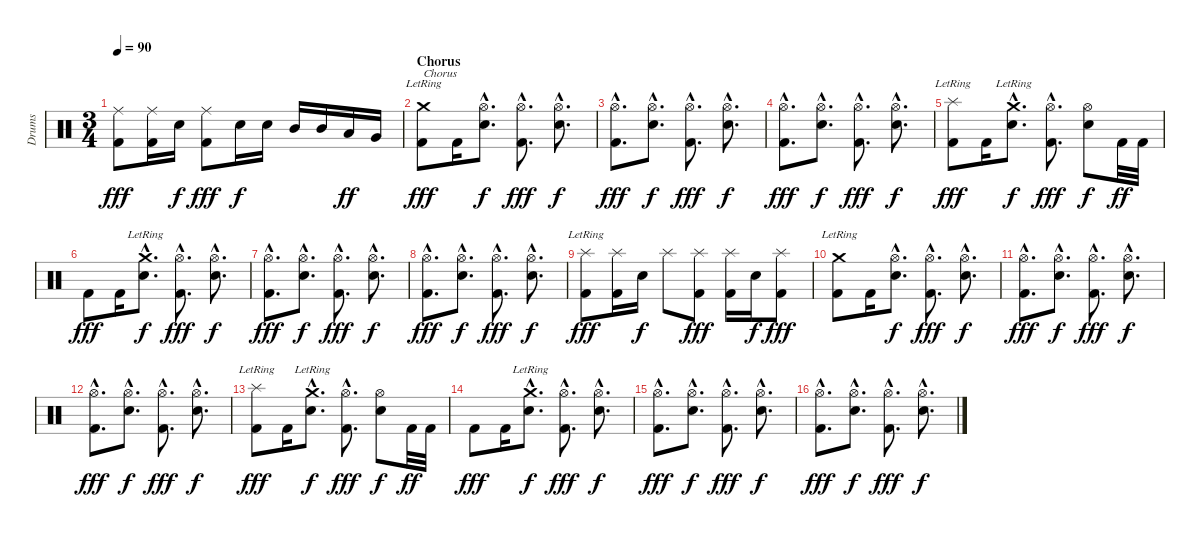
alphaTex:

\track ("Drums" "Drums") {instrument percussion}
\staff {score}
\articulation defaults
\ts (3 4)
\tempo 90
\clef neutral
\ks c
("Ride (middle)" "Kick (hit) 2").8{dy fff} ("Ride (middle)" "Kick (hit) 2").16 "Snare (hit) 2".16{dy f} ("Ride (middle)" "Kick (hit) 2").8{dy fff} "Snare (hit) 2".16{dy f} "Snare (hit) 2".16 "Mid Tom (hit)".16 "Mid Tom (hit)".16 "Low Tom (hit)".16{dy ff} "Very Low Tom (hit)".16 |
\section ("" "Chorus")
("Crash medium (hit)"{lr} "Kick (hit) 2").8{txt "Chorus" dy fff} "Kick (hit) 2".16 ("Hi-Hat (open)"{hac} "Snare (hit) 2"{hac}).8{d dy f} ("Hi-Hat (open)"{hac} "Kick (hit) 2"{hac}).8{d dy fff} ("Hi-Hat (open)"{hac} "Snare (hit) 2"{hac}).8{d dy f} |
("Hi-Hat (open)"{hac} "Kick (hit) 2"{hac}).8{d dy fff} ("Hi-Hat (open)"{hac} "Snare (hit) 2"{hac}).8{d dy f} ("Hi-Hat (open)"{hac} "Kick (hit) 2"{hac}).8{d dy fff} ("Hi-Hat (open)"{hac} "Snare (hit) 2"{hac}).8{d dy f} |
("Hi-Hat (open)"{hac} "Kick (hit) 2"{hac}).8{d dy fff} ("Hi-Hat (open)"{hac} "Snare (hit) 2"{hac}).8{d dy f} ("Hi-Hat (open)"{hac} "Kick (hit) 2"{hac}).8{d dy fff} ("Hi-Hat (open)"{hac} "Snare (hit) 2"{hac}).8{d dy f} |
("Splash (hit)"{lr} "Kick (hit) 2").8{dy fff} "Kick (hit) 2".16 ("Crash medium (hit)"{hac lr} "Snare (hit) 2"{hac}).8{d dy f} ("Hi-Hat (open)"{hac} "Kick (hit) 2"{hac}).8{d dy fff} ("Hi-Hat (open)" "Snare (hit) 2").8{dy f} "Kick (hit) 2".32{dy ff} "Kick (hit) 2".32 |
"Kick (hit) 2".8{dy fff} "Kick (hit) 2".16 ("Crash medium (hit)"{hac lr} "Snare (hit) 2"{hac}).8{d dy f} ("Hi-Hat (open)"{hac} "Kick (hit) 2"{hac}).8{d dy fff} ("Hi-Hat (open)"{hac} "Snare (hit) 2"{hac}).8{d dy f} |
("Hi-Hat (open)"{hac} "Kick (hit) 2"{hac}).8{d dy fff} ("Hi-Hat (open)"{hac} "Snare (hit) 2"{hac}).8{d dy f} ("Hi-Hat (open)"{hac} "Kick (hit) 2"{hac}).8{d dy fff} ("Hi-Hat (open)"{hac} "Snare (hit) 2"{hac}).8{d dy f} |
("Hi-Hat (open)"{hac} "Kick (hit) 2"{hac}).8{d dy fff} ("Hi-Hat (open)"{hac} "Snare (hit) 2"{hac}).8{d dy f} ("Hi-Hat (open)"{hac} "Kick (hit) 2"{hac}).8{d dy fff} ("Hi-Hat (open)"{hac} "Snare (hit) 2"{hac}).8{d dy f} |
("Splash (hit)"{lr} "Kick (hit) 2").8{dy fff} ("Splash (hit)" "Kick (hit) 2").16 "Snare (hit) 2".16{dy f} "Splash (hit)".8 ("Splash (hit)" "Kick (hit) 2").8{dy fff} ("Splash (hit)" "Kick (hit) 2").16 "Snare (hit) 2".16{dy f} ("Splash (hit)" "Kick (hit) 2").8{dy fff} |
("Crash medium (hit)"{lr} "Kick (hit) 2").8 "Kick (hit) 2".16 ("Hi-Hat (open)"{hac} "Snare (hit) 2"{hac}).8{d dy f} ("Hi-Hat (open)"{hac} "Kick (hit) 2"{hac}).8{d dy fff} ("Hi-Hat (open)"{hac} "Snare (hit) 2"{hac}).8{d dy f} |
("Hi-Hat (open)"{hac} "Kick (hit) 2"{hac}).8{d dy fff} ("Hi-Hat (open)"{hac} "Snare (hit) 2"{hac}).8{d dy f} ("Hi-Hat (open)"{hac} "Kick (hit) 2"{hac}).8{d dy fff} ("Hi-Hat (open)"{hac} "Snare (hit) 2"{hac}).8{d dy f} |
("Hi-Hat (open)"{hac} "Kick (hit) 2"{hac}).8{d dy fff} ("Hi-Hat (open)"{hac} "Snare (hit) 2"{hac}).8{d dy f} ("Hi-Hat (open)"{hac} "Kick (hit) 2"{hac}).8{d dy fff} ("Hi-Hat (open)"{hac} "Snare (hit) 2"{hac}).8{d dy f} |
("Splash (hit)"{lr} "Kick (hit) 2").8{dy fff} "Kick (hit) 2".16 ("Crash medium (hit)"{hac lr} "Snare (hit) 2"{hac}).8{d dy f} ("Hi-Hat (open)"{hac} "Kick (hit) 2"{hac}).8{d dy fff} ("Hi-Hat (open)" "Snare (hit) 2").8{dy f} "Kick (hit) 2".32{dy ff} "Kick (hit) 2".32 |
"Kick (hit) 2".8{dy fff} "Kick (hit) 2".16 ("Crash medium (hit)"{hac lr} "Snare (hit) 2"{hac}).8{d dy f} ("Hi-Hat (open)"{hac} "Kick (hit) 2"{hac}).8{d dy fff} ("Hi-Hat (open)"{hac} "Snare (hit) 2"{hac}).8{d dy f} |
("Hi-Hat (open)"{hac} "Kick (hit) 2"{hac}).8{d dy fff} ("Hi-Hat (open)"{hac} "Snare (hit) 2"{hac}).8{d dy f} ("Hi-Hat (open)"{hac} "Kick (hit) 2"{hac}).8{d dy fff} ("Hi-Hat (open)"{hac} "Snare (hit) 2"{hac}).8{d dy f} |
("Hi-Hat (open)"{hac} "Kick (hit) 2"{hac}).8{d dy fff} ("Hi-Hat (open)"{hac} "Snare (hit) 2"{hac}).8{d dy f} ("Hi-Hat (open)"{hac} "Kick (hit) 2"{hac}).8{d dy fff} ("Hi-Hat (open)"{hac} "Snare (hit) 2"{hac}).8{d dy f}
